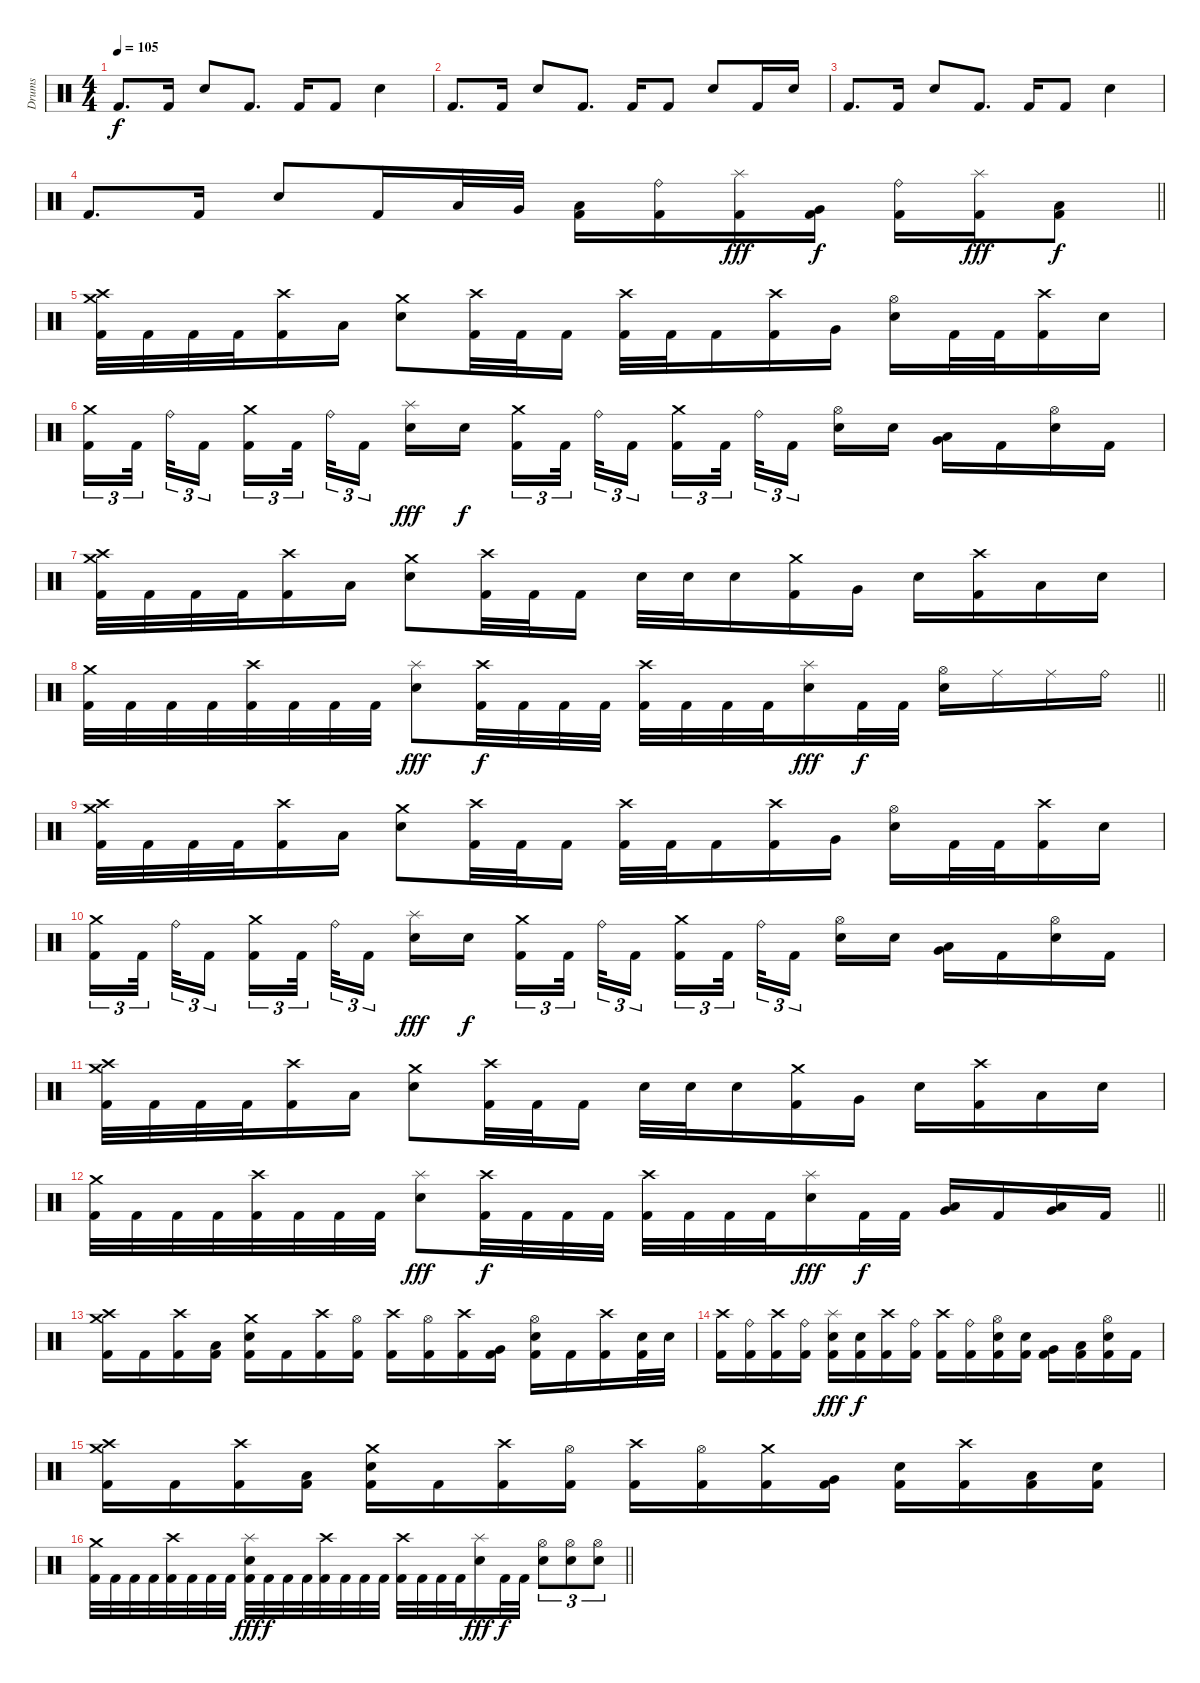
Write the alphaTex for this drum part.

\track ("Drums" "Drums") {instrument percussion}
\staff {score}
\articulation defaults
\ts (4 4)
\section ("" "")
\tempo 105
\clef neutral
\ks c "Kick (hit) 2".8{d dy f} "Kick (hit) 2".16 "Electric Snare (hit)".8 "Kick (hit) 2".8{d} "Kick (hit) 2".16 "Kick (hit) 2".8 "Electric Snare (hit)".4
|
"Kick (hit) 2".8{d} "Kick (hit) 2".16 "Electric Snare (hit)".8 "Kick (hit) 2".8{d} "Kick (hit) 2".16 "Kick (hit) 2".8 "Electric Snare (hit)".8 "Kick (hit) 2".16 "Electric Snare (hit)".16 |
"Kick (hit) 2".8{d} "Kick (hit) 2".16 "Electric Snare (hit)".8 "Kick (hit) 2".8{d} "Kick (hit) 2".16 "Kick (hit) 2".8 "Electric Snare (hit)".4 |
\barLineRight lightlight "Kick (hit) 2".8{d} "Kick (hit) 2".16 "Electric Snare (hit)".8 "Kick (hit) 2".16 "Low Tom (hit)".32 "Very Low Tom (hit)".32
("Low Floor Tom (hit)" "Kick (hit) 2").16 ("Ride (bell)" "Kick (hit) 2").16 ("Splash (hit)" "Kick (hit) 2").16{dy fff} ("Very Low Tom (hit)" "Kick (hit) 2").16{dy f} ("Ride (bell)" "Kick (hit) 2").16 ("Splash (hit)" "Kick (hit) 2").16{dy fff} ("Low Floor Tom (hit)" "Kick (hit) 2").8{dy f} |
\section ("" "")
("Crash high (hit)" "Crash medium (hit)" "Kick (hit) 2").32 "Kick (hit) 2".32 "Kick (hit) 2".32 "Kick (hit) 2".32 ("Crash high (hit)" "Kick (hit) 2").16 "Low Tom (hit)".16 ("Crash medium (hit)" "Electric Snare (hit)").8 ("Crash high (hit)" "Kick (hit) 2").32 "Kick (hit) 2".32 "Kick (hit) 2".16 ("Crash high (hit)" "Kick (hit) 2").32 "Kick (hit) 2".32 "Kick (hit) 2".16 ("Crash high (hit)" "Kick (hit) 2").16 "Very Low Tom (hit)".16 ("Hi-Hat (open)" "Electric Snare (hit)").16 "Kick (hit) 2".32 "Kick (hit) 2".32 ("Crash high (hit)" "Kick (hit) 2").16 "Electric Snare (hit)".16 |
("Crash medium (hit)" "Kick (hit) 2").16{tu (3 2)} "Kick (hit) 2".32{tu (3 2)} "Ride (bell)".32{tu (3 2)} "Kick (hit) 2".16{tu (3 2)} ("Crash medium (hit)" "Kick (hit) 2").16{tu (3 2)} "Kick (hit) 2".32{tu (3 2)} "Ride (bell)".32{tu (3 2)} "Kick (hit) 2".16{tu (3 2)} ("Splash (hit)" "Electric Snare (hit)").16{dy fff} "Electric Snare (hit)".16{dy f} ("Crash medium (hit)" "Kick (hit) 2").16{tu (3 2)} "Kick (hit) 2".32{tu (3 2)} "Ride (bell)".32{tu (3 2)} "Kick (hit) 2".16{tu (3 2)} ("Crash medium (hit)" "Kick (hit) 2").16{tu (3 2)} "Kick (hit) 2".32{tu (3 2)} "Ride (bell)".32{tu (3 2)} "Kick (hit) 2".16{tu (3 2)} ("Hi-Hat (open)" "Electric Snare (hit)").16 "Electric Snare (hit)".16 ("Very Low Tom (hit)" "Low Floor Tom (hit)").16 "Kick (hit) 2".16 ("Hi-Hat (open)" "Electric Snare (hit)").16 "Kick (hit) 2".16 |
("Crash high (hit)" "Crash medium (hit)" "Kick (hit) 2").32 "Kick (hit) 2".32 "Kick (hit) 2".32 "Kick (hit) 2".32 ("Crash high (hit)" "Kick (hit) 2").16 "Low Tom (hit)".16 ("Crash medium (hit)" "Electric Snare (hit)").8 ("Crash high (hit)" "Kick (hit) 2").32 "Kick (hit) 2".32 "Kick (hit) 2".16 "Electric Snare (hit)".32 "Electric Snare (hit)".32 "Electric Snare (hit)".16 ("Crash medium (hit)" "Kick (hit) 2").16 "Very Low Tom (hit)".16 "Electric Snare (hit)".16 ("Crash high (hit)" "Kick (hit) 2").16 "Low Floor Tom (hit)".16 "Electric Snare (hit)".16 |
\barLineRight lightlight
("Crash medium (hit)" "Kick (hit) 2").32 "Kick (hit) 2".32 "Kick (hit) 2".32 "Kick (hit) 2".32 ("Crash high (hit)" "Kick (hit) 2").32 "Kick (hit) 2".32 "Kick (hit) 2".32 "Kick (hit) 2".32 ("Splash (hit)" "Electric Snare (hit)").8{dy fff} ("Crash high (hit)" "Kick (hit) 2").32{dy f} "Kick (hit) 2".32 "Kick (hit) 2".32 "Kick (hit) 2".32 ("Crash high (hit)" "Kick (hit) 2").32 "Kick (hit) 2".32 "Kick (hit) 2".32 "Kick (hit) 2".32 ("Splash (hit)" "Electric Snare (hit)").16{dy fff} "Kick (hit) 2".32{dy f} "Kick (hit) 2".32 ("Hi-Hat (open)" "Electric Snare (hit)").16 "Ride (middle)".16 "Ride (middle)".16 "Ride (bell)".16 |
\section ("" "")
("Crash high (hit)" "Crash medium (hit)" "Kick (hit) 2").32 "Kick (hit) 2".32 "Kick (hit) 2".32 "Kick (hit) 2".32 ("Crash high (hit)" "Kick (hit) 2").16 "Low Tom (hit)".16 ("Crash medium (hit)" "Electric Snare (hit)").8 ("Crash high (hit)" "Kick (hit) 2").32 "Kick (hit) 2".32 "Kick (hit) 2".16 ("Crash high (hit)" "Kick (hit) 2").32 "Kick (hit) 2".32 "Kick (hit) 2".16 ("Crash high (hit)" "Kick (hit) 2").16 "Very Low Tom (hit)".16 ("Hi-Hat (open)" "Electric Snare (hit)").16 "Kick (hit) 2".32 "Kick (hit) 2".32 ("Crash high (hit)" "Kick (hit) 2").16 "Electric Snare (hit)".16 |
("Crash medium (hit)" "Kick (hit) 2").16{tu (3 2)} "Kick (hit) 2".32{tu (3 2)} "Ride (bell)".32{tu (3 2)} "Kick (hit) 2".16{tu (3 2)} ("Crash medium (hit)" "Kick (hit) 2").16{tu (3 2)} "Kick (hit) 2".32{tu (3 2)} "Ride (bell)".32{tu (3 2)} "Kick (hit) 2".16{tu (3 2)} ("Splash (hit)" "Electric Snare (hit)").16{dy fff} "Electric Snare (hit)".16{dy f} ("Crash medium (hit)" "Kick (hit) 2").16{tu (3 2)} "Kick (hit) 2".32{tu (3 2)} "Ride (bell)".32{tu (3 2)} "Kick (hit) 2".16{tu (3 2)} ("Crash medium (hit)" "Kick (hit) 2").16{tu (3 2)} "Kick (hit) 2".32{tu (3 2)} "Ride (bell)".32{tu (3 2)} "Kick (hit) 2".16{tu (3 2)} ("Hi-Hat (open)" "Electric Snare (hit)").16 "Electric Snare (hit)".16 ("Very Low Tom (hit)" "Low Floor Tom (hit)").16 "Kick (hit) 2".16 ("Hi-Hat (open)" "Electric Snare (hit)").16 "Kick (hit) 2".16 |
("Crash high (hit)" "Crash medium (hit)" "Kick (hit) 2").32 "Kick (hit) 2".32 "Kick (hit) 2".32 "Kick (hit) 2".32 ("Crash high (hit)" "Kick (hit) 2").16 "Low Tom (hit)".16 ("Crash medium (hit)" "Electric Snare (hit)").8 ("Crash high (hit)" "Kick (hit) 2").32 "Kick (hit) 2".32 "Kick (hit) 2".16 "Electric Snare (hit)".32 "Electric Snare (hit)".32 "Electric Snare (hit)".16 ("Crash medium (hit)" "Kick (hit) 2").16 "Very Low Tom (hit)".16 "Electric Snare (hit)".16 ("Crash high (hit)" "Kick (hit) 2").16 "Low Floor Tom (hit)".16 "Electric Snare (hit)".16 |
\barLineRight lightlight
("Crash medium (hit)" "Kick (hit) 2").32 "Kick (hit) 2".32 "Kick (hit) 2".32 "Kick (hit) 2".32 ("Crash high (hit)" "Kick (hit) 2").32 "Kick (hit) 2".32 "Kick (hit) 2".32 "Kick (hit) 2".32 ("Splash (hit)" "Electric Snare (hit)").8{dy fff} ("Crash high (hit)" "Kick (hit) 2").32{dy f} "Kick (hit) 2".32 "Kick (hit) 2".32 "Kick (hit) 2".32 ("Crash high (hit)" "Kick (hit) 2").32 "Kick (hit) 2".32 "Kick (hit) 2".32 "Kick (hit) 2".32 ("Splash (hit)" "Electric Snare (hit)").16{dy fff} "Kick (hit) 2".32{dy f} "Kick (hit) 2".32 ("Low Tom (hit)" "Very Low Tom (hit)").16 "Kick (hit) 2".16 ("Very Low Tom (hit)" "Low Floor Tom (hit)").16 "Kick (hit) 2".16 |
\section ("" "")
("Crash high (hit)" "Crash medium (hit)" "Kick (hit) 2").16 "Kick (hit) 2".16 ("Crash high (hit)" "Kick (hit) 2").16 ("Low Tom (hit)" "Kick (hit) 2").16 ("Crash medium (hit)" "Electric Snare (hit)" "Kick (hit) 2").16 "Kick (hit) 2".16 ("Crash high (hit)" "Kick (hit) 2").16 ("Hi-Hat (open)" "Kick (hit) 2").16 ("Crash high (hit)" "Kick (hit) 2").16 ("Hi-Hat (open)" "Kick (hit) 2").16 ("Crash high (hit)" "Kick (hit) 2").16 ("Very Low Tom (hit)" "Kick (hit) 2").16 ("Hi-Hat (open)" "Electric Snare (hit)" "Kick (hit) 2").16 "Kick (hit) 2".16 ("Crash high (hit)" "Kick (hit) 2").16 ("Electric Snare (hit)" "Kick (hit) 2").32 "Electric Snare (hit)".32 |
("Crash high (hit)" "Kick (hit) 2").16 ("Ride (bell)" "Kick (hit) 2").16 ("Crash high (hit)" "Kick (hit) 2").16 ("Ride (bell)" "Kick (hit) 2").16 ("Splash (hit)" "Electric Snare (hit)" "Kick (hit) 2").16{dy fff} ("Electric Snare (hit)" "Kick (hit) 2").16{dy f} ("Crash high (hit)" "Kick (hit) 2").16 ("Ride (bell)" "Kick (hit) 2").16 ("Crash high (hit)" "Kick (hit) 2").16 ("Ride (bell)" "Kick (hit) 2").16 ("Hi-Hat (open)" "Electric Snare (hit)" "Kick (hit) 2").16 ("Electric Snare (hit)" "Kick (hit) 2").16 ("Very Low Tom (hit)" "Kick (hit) 2").16 ("Low Floor Tom (hit)" "Kick (hit) 2").16 ("Hi-Hat (open)" "Electric Snare (hit)" "Kick (hit) 2").16 "Kick (hit) 2".16 |
("Crash high (hit)" "Crash medium (hit)" "Kick (hit) 2").16 "Kick (hit) 2".16 ("Crash high (hit)" "Kick (hit) 2").16 ("Low Tom (hit)" "Kick (hit) 2").16 ("Crash medium (hit)" "Electric Snare (hit)" "Kick (hit) 2").16 "Kick (hit) 2".16 ("Crash high (hit)" "Kick (hit) 2").16 ("Hi-Hat (open)" "Kick (hit) 2").16 ("Crash high (hit)" "Kick (hit) 2").16 ("Hi-Hat (open)" "Kick (hit) 2").16 ("Crash medium (hit)" "Kick (hit) 2").16 ("Very Low Tom (hit)" "Kick (hit) 2").16 ("Electric Snare (hit)" "Kick (hit) 2").16 ("Crash high (hit)" "Kick (hit) 2").16 ("Low Floor Tom (hit)" "Kick (hit) 2").16 ("Electric Snare (hit)" "Kick (hit) 2").16 |
\barLineRight lightlight
("Crash medium (hit)" "Kick (hit) 2").32 "Kick (hit) 2".32 "Kick (hit) 2".32 "Kick (hit) 2".32 ("Crash high (hit)" "Kick (hit) 2").32 "Kick (hit) 2".32 "Kick (hit) 2".32 "Kick (hit) 2".32 ("Splash (hit)" "Electric Snare (hit)" "Kick (hit) 2").32{dy fff} "Kick (hit) 2".32{dy f} "Kick (hit) 2".32 "Kick (hit) 2".32 ("Crash high (hit)" "Kick (hit) 2").32 "Kick (hit) 2".32 "Kick (hit) 2".32 "Kick (hit) 2".32 ("Crash high (hit)" "Kick (hit) 2").32 "Kick (hit) 2".32 "Kick (hit) 2".32 "Kick (hit) 2".32 ("Splash (hit)" "Electric Snare (hit)").16{dy fff} "Kick (hit) 2".32{dy f} "Kick (hit) 2".32 ("Hi-Hat (open)" "Electric Snare (hit)").8{tu (3 2)} ("Hi-Hat (open)" "Electric Snare (hit)").8{tu (3 2)} ("Hi-Hat (open)" "Electric Snare (hit)").8{tu (3 2)}
